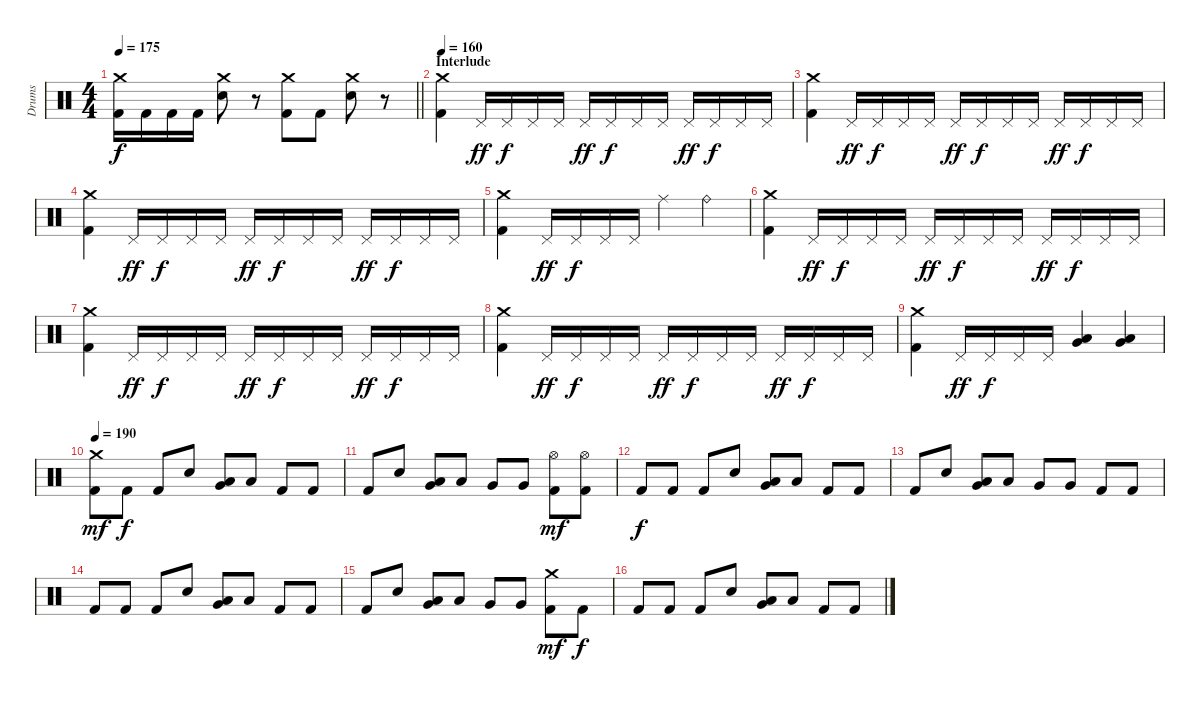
\track ("Drums" "Drums") {instrument percussion}
\staff {score}
\articulation defaults
\ts (4 4)
\tempo 175
\clef neutral
\barLineRight lightlight
\ks c
("Crash medium (hit)" "Kick (hit) 2").16{dy f} "Kick (hit) 2".16 "Kick (hit) 2".16 "Kick (hit) 2".16 ("Crash medium (hit)" "Electric Snare (hit)").8 r.8 ("Crash medium (hit)" "Kick (hit) 2").8 "Kick (hit) 2".8 ("Crash medium (hit)" "Electric Snare (hit)").8 r.8 |
\section ("" "Interlude")
\tempo 160
("Crash medium (hit)" "Kick (hit) 2").4 "Pedal Hi-Hat (hit)".16{dy ff} "Pedal Hi-Hat (hit)".16{dy f} "Pedal Hi-Hat (hit)".16 "Pedal Hi-Hat (hit)".16 "Pedal Hi-Hat (hit)".16{dy ff} "Pedal Hi-Hat (hit)".16{dy f} "Pedal Hi-Hat (hit)".16 "Pedal Hi-Hat (hit)".16 "Pedal Hi-Hat (hit)".16{dy ff} "Pedal Hi-Hat (hit)".16{dy f} "Pedal Hi-Hat (hit)".16 "Pedal Hi-Hat (hit)".16 |
("Crash medium (hit)" "Kick (hit) 2").4 "Pedal Hi-Hat (hit)".16{dy ff} "Pedal Hi-Hat (hit)".16{dy f} "Pedal Hi-Hat (hit)".16 "Pedal Hi-Hat (hit)".16 "Pedal Hi-Hat (hit)".16{dy ff} "Pedal Hi-Hat (hit)".16{dy f} "Pedal Hi-Hat (hit)".16 "Pedal Hi-Hat (hit)".16 "Pedal Hi-Hat (hit)".16{dy ff} "Pedal Hi-Hat (hit)".16{dy f} "Pedal Hi-Hat (hit)".16 "Pedal Hi-Hat (hit)".16 |
("Crash medium (hit)" "Kick (hit) 2").4 "Pedal Hi-Hat (hit)".16{dy ff} "Pedal Hi-Hat (hit)".16{dy f} "Pedal Hi-Hat (hit)".16 "Pedal Hi-Hat (hit)".16 "Pedal Hi-Hat (hit)".16{dy ff} "Pedal Hi-Hat (hit)".16{dy f} "Pedal Hi-Hat (hit)".16 "Pedal Hi-Hat (hit)".16 "Pedal Hi-Hat (hit)".16{dy ff} "Pedal Hi-Hat (hit)".16{dy f} "Pedal Hi-Hat (hit)".16 "Pedal Hi-Hat (hit)".16 |
("Crash medium (hit)" "Kick (hit) 2").4 "Pedal Hi-Hat (hit)".16{dy ff} "Pedal Hi-Hat (hit)".16{dy f} "Pedal Hi-Hat (hit)".16 "Pedal Hi-Hat (hit)".16 "Ride (middle)".4 "Ride (bell)".4 |
("Crash medium (hit)" "Kick (hit) 2").4 "Pedal Hi-Hat (hit)".16{dy ff} "Pedal Hi-Hat (hit)".16{dy f} "Pedal Hi-Hat (hit)".16 "Pedal Hi-Hat (hit)".16 "Pedal Hi-Hat (hit)".16{dy ff} "Pedal Hi-Hat (hit)".16{dy f} "Pedal Hi-Hat (hit)".16 "Pedal Hi-Hat (hit)".16 "Pedal Hi-Hat (hit)".16{dy ff} "Pedal Hi-Hat (hit)".16{dy f} "Pedal Hi-Hat (hit)".16 "Pedal Hi-Hat (hit)".16 |
("Crash medium (hit)" "Kick (hit) 2").4 "Pedal Hi-Hat (hit)".16{dy ff} "Pedal Hi-Hat (hit)".16{dy f} "Pedal Hi-Hat (hit)".16 "Pedal Hi-Hat (hit)".16 "Pedal Hi-Hat (hit)".16{dy ff} "Pedal Hi-Hat (hit)".16{dy f} "Pedal Hi-Hat (hit)".16 "Pedal Hi-Hat (hit)".16 "Pedal Hi-Hat (hit)".16{dy ff} "Pedal Hi-Hat (hit)".16{dy f} "Pedal Hi-Hat (hit)".16 "Pedal Hi-Hat (hit)".16 |
("Crash medium (hit)" "Kick (hit) 2").4 "Pedal Hi-Hat (hit)".16{dy ff} "Pedal Hi-Hat (hit)".16{dy f} "Pedal Hi-Hat (hit)".16 "Pedal Hi-Hat (hit)".16 "Pedal Hi-Hat (hit)".16{dy ff} "Pedal Hi-Hat (hit)".16{dy f} "Pedal Hi-Hat (hit)".16 "Pedal Hi-Hat (hit)".16 "Pedal Hi-Hat (hit)".16{dy ff} "Pedal Hi-Hat (hit)".16{dy f} "Pedal Hi-Hat (hit)".16 "Pedal Hi-Hat (hit)".16 |
("Crash medium (hit)" "Kick (hit) 2").4 "Pedal Hi-Hat (hit)".16{dy ff} "Pedal Hi-Hat (hit)".16{dy f} "Pedal Hi-Hat (hit)".16 "Pedal Hi-Hat (hit)".16 ("Low Tom (hit)" "Very Low Tom (hit)").4 ("Low Floor Tom (hit)" "Very Low Tom (hit)").4 |
\tempo 190
("Crash medium (hit)" "Kick (hit) 2").8{dy mf} "Kick (hit) 2".8{dy f} "Kick (hit) 2".8 "Electric Snare (hit)".8 ("Low Tom (hit)" "Very Low Tom (hit)").8 "Low Floor Tom (hit)".8 "Kick (hit) 2".8 "Kick (hit) 2".8 |
"Kick (hit) 2".8 "Electric Snare (hit)".8 ("Low Tom (hit)" "Very Low Tom (hit)").8 "Low Floor Tom (hit)".8 "Very Low Tom (hit)".8 "Very Low Tom (hit)".8 ("Hi-Hat (open)" "Kick (hit) 2").8{dy mf} ("Hi-Hat (open)" "Kick (hit) 2").8 |
"Kick (hit) 2".8{dy f} "Kick (hit) 2".8 "Kick (hit) 2".8 "Electric Snare (hit)".8 ("Low Tom (hit)" "Very Low Tom (hit)").8 "Low Floor Tom (hit)".8 "Kick (hit) 2".8 "Kick (hit) 2".8 |
"Kick (hit) 2".8 "Electric Snare (hit)".8 ("Low Tom (hit)" "Very Low Tom (hit)").8 "Low Floor Tom (hit)".8 "Very Low Tom (hit)".8 "Very Low Tom (hit)".8 "Kick (hit) 2".8 "Kick (hit) 2".8 |
"Kick (hit) 2".8 "Kick (hit) 2".8 "Kick (hit) 2".8 "Electric Snare (hit)".8 ("Low Tom (hit)" "Very Low Tom (hit)").8 "Low Floor Tom (hit)".8 "Kick (hit) 2".8 "Kick (hit) 2".8 |
"Kick (hit) 2".8 "Electric Snare (hit)".8 ("Low Tom (hit)" "Very Low Tom (hit)").8 "Low Floor Tom (hit)".8 "Very Low Tom (hit)".8 "Very Low Tom (hit)".8 ("Crash medium (hit)" "Kick (hit) 2").8{dy mf} "Kick (hit) 2".8{dy f} |
"Kick (hit) 2".8 "Kick (hit) 2".8 "Kick (hit) 2".8 "Electric Snare (hit)".8 ("Low Tom (hit)" "Very Low Tom (hit)").8 "Low Floor Tom (hit)".8 "Kick (hit) 2".8 "Kick (hit) 2".8
